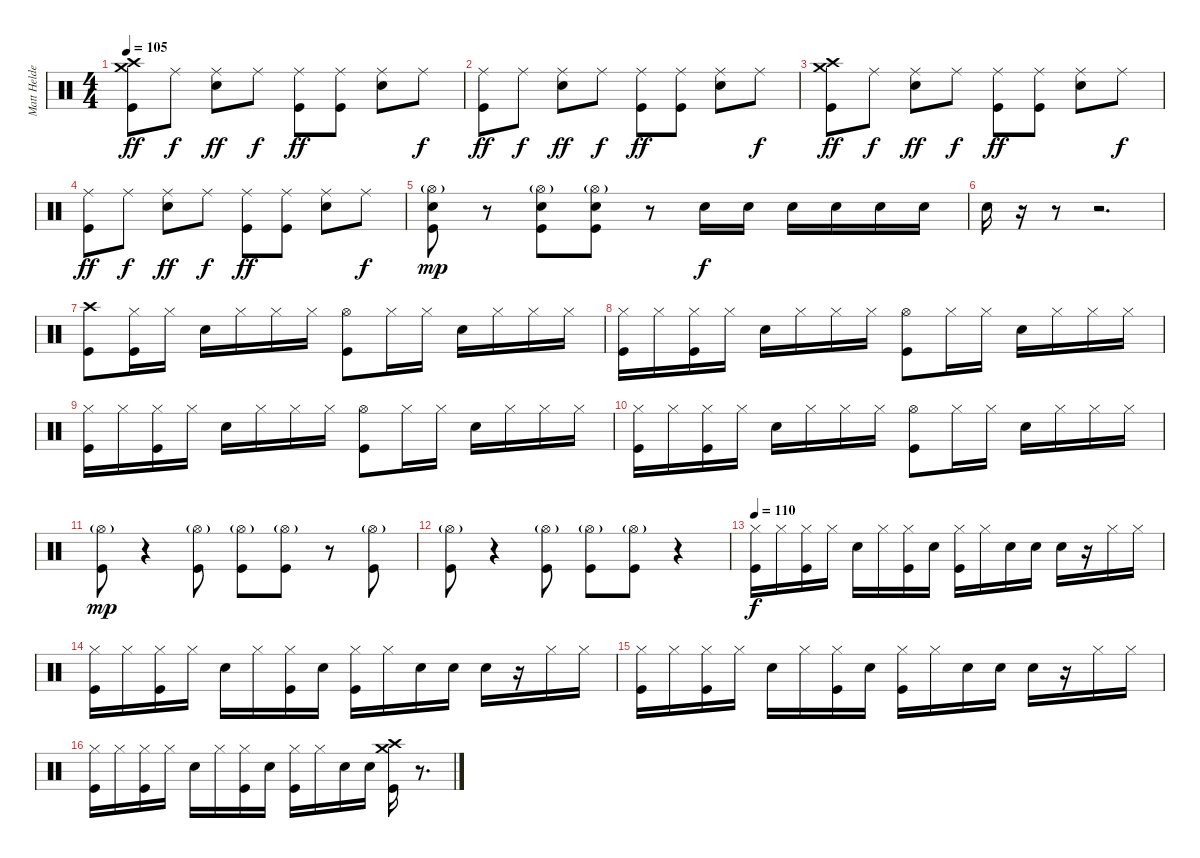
\track ("Matt Helders" "Matt Helde") {instrument percussion}
\staff {score}
\articulation defaults
\ts (4 4)
\tempo 105
\clef neutral
\ks c
("Crash high (hit)" "Crash medium (hit)" "Kick (hit)").8{dy ff} "Ride (middle)".8{dy f} ("Ride (middle)" "Snare (hit) 2").8{dy ff} "Ride (middle)".8{dy f} ("Ride (middle)" "Kick (hit)").8{dy ff} ("Ride (middle)" "Kick (hit)").8 ("Ride (middle)" "Snare (hit) 2").8 "Ride (middle)".8{dy f} |
("Ride (middle)" "Kick (hit)").8{dy ff} "Ride (middle)".8{dy f} ("Ride (middle)" "Snare (hit) 2").8{dy ff} "Ride (middle)".8{dy f} ("Ride (middle)" "Kick (hit)").8{dy ff} ("Ride (middle)" "Kick (hit)").8 ("Ride (middle)" "Snare (hit) 2").8 "Ride (middle)".8{dy f} |
("Crash high (hit)" "Crash medium (hit)" "Kick (hit)").8{dy ff} "Ride (middle)".8{dy f} ("Ride (middle)" "Snare (hit) 2").8{dy ff} "Ride (middle)".8{dy f} ("Ride (middle)" "Kick (hit)").8{dy ff} ("Ride (middle)" "Kick (hit)").8 ("Ride (middle)" "Snare (hit) 2").8 "Ride (middle)".8{dy f} |
("Ride (middle)" "Kick (hit)").8{dy ff} "Ride (middle)".8{dy f} ("Ride (middle)" "Snare (hit) 2").8{dy ff} "Ride (middle)".8{dy f} ("Ride (middle)" "Kick (hit)").8{dy ff} ("Ride (middle)" "Kick (hit)").8 ("Ride (middle)" "Snare (hit) 2").8 "Ride (middle)".8{dy f} |
("Hi-Hat (open)"{g} "Snare (hit) 2" "Kick (hit)").8{dy mp} r.8 ("Hi-Hat (open)"{g} "Snare (hit) 2" "Kick (hit)").8 ("Hi-Hat (open)"{g} "Snare (hit) 2" "Kick (hit)").8 r.8 "Snare (hit) 2".16{dy f} "Snare (hit) 2".16 "Snare (hit) 2".16 "Snare (hit) 2".16 "Snare (hit) 2".16 "Snare (hit) 2".16 |
"Snare (hit) 2".16 r.16 r.8 r.2{d} |
("Crash high (hit)" "Kick (hit)").8 ("Hi-Hat (closed)" "Kick (hit)").16 "Hi-Hat (closed)".16 "Snare (hit) 2".16 "Hi-Hat (closed)".16 "Hi-Hat (closed)".16 "Hi-Hat (closed)".16 ("Hi-Hat (open)" "Kick (hit)").8 "Hi-Hat (closed)".16 "Hi-Hat (closed)".16 "Snare (hit) 2".16 "Hi-Hat (closed)".16 "Hi-Hat (closed)".16 "Hi-Hat (closed)".16 |
("Hi-Hat (closed)" "Kick (hit)").16 "Hi-Hat (closed)".16 ("Hi-Hat (closed)" "Kick (hit)").16 "Hi-Hat (closed)".16 "Snare (hit) 2".16 "Hi-Hat (closed)".16 "Hi-Hat (closed)".16 "Hi-Hat (closed)".16 ("Hi-Hat (open)" "Kick (hit)").8 "Hi-Hat (closed)".16 "Hi-Hat (closed)".16 "Snare (hit) 2".16 "Hi-Hat (closed)".16 "Hi-Hat (closed)".16 "Hi-Hat (closed)".16 |
("Hi-Hat (closed)" "Kick (hit)").16 "Hi-Hat (closed)".16 ("Hi-Hat (closed)" "Kick (hit)").16 "Hi-Hat (closed)".16 "Snare (hit) 2".16 "Hi-Hat (closed)".16 "Hi-Hat (closed)".16 "Hi-Hat (closed)".16 ("Hi-Hat (open)" "Kick (hit)").8 "Hi-Hat (closed)".16 "Hi-Hat (closed)".16 "Snare (hit) 2".16 "Hi-Hat (closed)".16 "Hi-Hat (closed)".16 "Hi-Hat (closed)".16 |
("Hi-Hat (closed)" "Kick (hit)").16 "Hi-Hat (closed)".16 ("Hi-Hat (closed)" "Kick (hit)").16 "Hi-Hat (closed)".16 "Snare (hit) 2".16 "Hi-Hat (closed)".16 "Hi-Hat (closed)".16 "Hi-Hat (closed)".16 ("Hi-Hat (open)" "Kick (hit)").8 "Hi-Hat (closed)".16 "Hi-Hat (closed)".16 "Snare (hit) 2".16 "Hi-Hat (closed)".16 "Hi-Hat (closed)".16 "Hi-Hat (closed)".16 |
("Hi-Hat (open)"{g} "Kick (hit)").8{dy mp} r.4 ("Hi-Hat (open)"{g} "Kick (hit)").8 ("Hi-Hat (open)"{g} "Kick (hit)").8 ("Hi-Hat (open)"{g} "Kick (hit)").8 r.8 ("Hi-Hat (open)"{g} "Kick (hit)").8 |
("Hi-Hat (open)"{g} "Kick (hit)").8 r.4 ("Hi-Hat (open)"{g} "Kick (hit)").8 ("Hi-Hat (open)"{g} "Kick (hit)").8 ("Hi-Hat (open)"{g} "Kick (hit)").8 r.4 |
\tempo 110
("Hi-Hat (closed)" "Kick (hit)").16{dy f} "Hi-Hat (closed)".16 ("Hi-Hat (closed)" "Kick (hit)").16 "Hi-Hat (closed)".16 "Snare (hit) 2".16 "Hi-Hat (closed)".16 ("Hi-Hat (closed)" "Kick (hit)").16 "Snare (hit) 2".16 ("Hi-Hat (closed)" "Kick (hit)").16 "Hi-Hat (closed)".16 "Snare (hit) 2".16 "Snare (hit) 2".16 "Snare (hit) 2".16 r.16 "Hi-Hat (closed)".16 "Hi-Hat (closed)".16 |
("Hi-Hat (closed)" "Kick (hit)").16 "Hi-Hat (closed)".16 ("Hi-Hat (closed)" "Kick (hit)").16 "Hi-Hat (closed)".16 "Snare (hit) 2".16 "Hi-Hat (closed)".16 ("Hi-Hat (closed)" "Kick (hit)").16 "Snare (hit) 2".16 ("Hi-Hat (closed)" "Kick (hit)").16 "Hi-Hat (closed)".16 "Snare (hit) 2".16 "Snare (hit) 2".16 "Snare (hit) 2".16 r.16 "Hi-Hat (closed)".16 "Hi-Hat (closed)".16 |
("Hi-Hat (closed)" "Kick (hit)").16 "Hi-Hat (closed)".16 ("Hi-Hat (closed)" "Kick (hit)").16 "Hi-Hat (closed)".16 "Snare (hit) 2".16 "Hi-Hat (closed)".16 ("Hi-Hat (closed)" "Kick (hit)").16 "Snare (hit) 2".16 ("Hi-Hat (closed)" "Kick (hit)").16 "Hi-Hat (closed)".16 "Snare (hit) 2".16 "Snare (hit) 2".16 "Snare (hit) 2".16 r.16 "Hi-Hat (closed)".16 "Hi-Hat (closed)".16 |
("Hi-Hat (closed)" "Kick (hit)").16 "Hi-Hat (closed)".16 ("Hi-Hat (closed)" "Kick (hit)").16 "Hi-Hat (closed)".16 "Snare (hit) 2".16 "Hi-Hat (closed)".16 ("Hi-Hat (closed)" "Kick (hit)").16 "Snare (hit) 2".16 ("Hi-Hat (closed)" "Kick (hit)").16 "Hi-Hat (closed)".16 "Snare (hit) 2".16 "Snare (hit) 2".16 ("Crash high (hit)" "Crash medium (hit)" "Kick (hit)").16 r.8{d}
